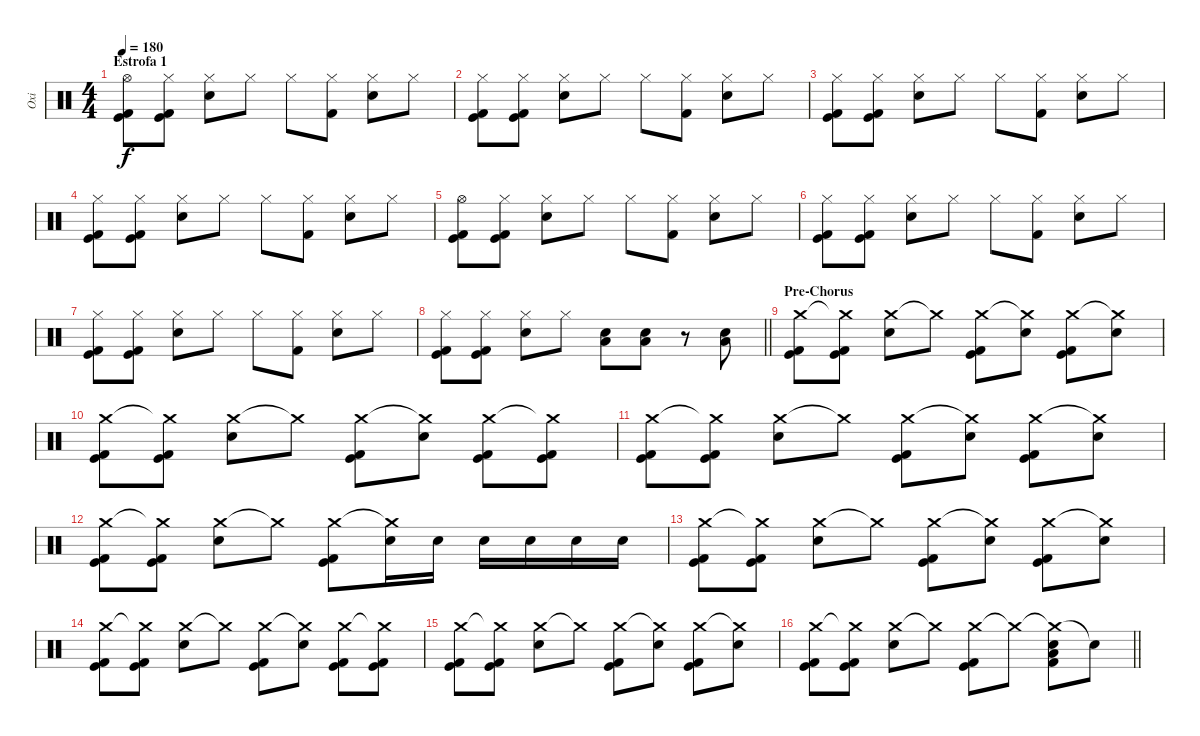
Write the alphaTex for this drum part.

\track ("Oxi" "Oxi") {instrument percussion}
\staff {score}
\articulation defaults
\ts (4 4)
\section ("" "Estrofa 1")
\tempo 180
\clef neutral
\ks c
("Hi-Hat (open)" "Kick (hit) 2" "Kick (hit)").8{dy f} ("Hi-Hat (closed)" "Kick (hit) 2" "Kick (hit)").8 ("Hi-Hat (closed)" "Electric Snare (hit)").8 "Hi-Hat (closed)".8 "Hi-Hat (closed)".8 ("Hi-Hat (closed)" "Kick (hit) 2").8 ("Hi-Hat (closed)" "Electric Snare (hit)").8 "Hi-Hat (closed)".8 |
("Hi-Hat (closed)" "Kick (hit) 2" "Kick (hit)").8 ("Hi-Hat (closed)" "Kick (hit) 2" "Kick (hit)").8 ("Hi-Hat (closed)" "Electric Snare (hit)").8 "Hi-Hat (closed)".8 "Hi-Hat (closed)".8 ("Hi-Hat (closed)" "Kick (hit) 2").8 ("Hi-Hat (closed)" "Electric Snare (hit)").8 "Hi-Hat (closed)".8 |
("Hi-Hat (closed)" "Kick (hit) 2" "Kick (hit)").8 ("Hi-Hat (closed)" "Kick (hit) 2" "Kick (hit)").8 ("Hi-Hat (closed)" "Electric Snare (hit)").8 "Hi-Hat (closed)".8 "Hi-Hat (closed)".8 ("Hi-Hat (closed)" "Kick (hit) 2").8 ("Hi-Hat (closed)" "Electric Snare (hit)").8 "Hi-Hat (closed)".8 |
("Hi-Hat (closed)" "Kick (hit) 2" "Kick (hit)").8 ("Hi-Hat (closed)" "Kick (hit) 2" "Kick (hit)").8 ("Hi-Hat (closed)" "Electric Snare (hit)").8 "Hi-Hat (closed)".8 "Hi-Hat (closed)".8 ("Hi-Hat (closed)" "Kick (hit) 2").8 ("Hi-Hat (closed)" "Electric Snare (hit)").8 "Hi-Hat (closed)".8 |
("Hi-Hat (open)" "Kick (hit) 2" "Kick (hit)").8 ("Hi-Hat (closed)" "Kick (hit) 2" "Kick (hit)").8 ("Hi-Hat (closed)" "Electric Snare (hit)").8 "Hi-Hat (closed)".8 "Hi-Hat (closed)".8 ("Hi-Hat (closed)" "Kick (hit) 2").8 ("Hi-Hat (closed)" "Electric Snare (hit)").8 "Hi-Hat (closed)".8 |
("Hi-Hat (closed)" "Kick (hit) 2" "Kick (hit)").8 ("Hi-Hat (closed)" "Kick (hit) 2" "Kick (hit)").8 ("Hi-Hat (closed)" "Electric Snare (hit)").8 "Hi-Hat (closed)".8 "Hi-Hat (closed)".8 ("Hi-Hat (closed)" "Kick (hit) 2").8 ("Hi-Hat (closed)" "Electric Snare (hit)").8 "Hi-Hat (closed)".8 |
("Hi-Hat (closed)" "Kick (hit) 2" "Kick (hit)").8 ("Hi-Hat (closed)" "Kick (hit) 2" "Kick (hit)").8 ("Hi-Hat (closed)" "Electric Snare (hit)").8 "Hi-Hat (closed)".8 "Hi-Hat (closed)".8 ("Hi-Hat (closed)" "Kick (hit) 2").8 ("Hi-Hat (closed)" "Electric Snare (hit)").8 "Hi-Hat (closed)".8 |
\barLineRight lightlight
("Hi-Hat (closed)" "Kick (hit) 2" "Kick (hit)").8 ("Hi-Hat (closed)" "Kick (hit) 2" "Kick (hit)").8 ("Hi-Hat (closed)" "Electric Snare (hit)").8 "Hi-Hat (closed)".8 ("Electric Snare (hit)" "Low Tom (hit)").8 ("Electric Snare (hit)" "Low Tom (hit)").8 r.8 ("Electric Snare (hit)" "Low Tom (hit)").8 |
\section ("" "Pre-Chorus")
("Crash medium (hit)" "Kick (hit) 2" "Kick (hit)").8 ("Crash medium (hit)"{t} "Kick (hit) 2" "Kick (hit)").8 ("Crash medium (hit)" "Electric Snare (hit)").8 "Crash medium (hit)"{t}.8 ("Crash medium (hit)" "Kick (hit) 2" "Kick (hit)").8 ("Crash medium (hit)"{t} "Electric Snare (hit)").8 ("Crash medium (hit)" "Kick (hit) 2" "Kick (hit)").8 ("Crash medium (hit)"{t} "Electric Snare (hit)").8 |
("Crash medium (hit)" "Kick (hit) 2" "Kick (hit)").8 ("Crash medium (hit)"{t} "Kick (hit) 2" "Kick (hit)").8 ("Crash medium (hit)" "Electric Snare (hit)").8 "Crash medium (hit)"{t}.8 ("Crash medium (hit)" "Kick (hit) 2" "Kick (hit)").8 ("Crash medium (hit)"{t} "Electric Snare (hit)").8 ("Crash medium (hit)" "Kick (hit) 2" "Kick (hit)").8 ("Crash medium (hit)"{t} "Kick (hit) 2" "Kick (hit)").8 |
("Crash medium (hit)" "Kick (hit) 2" "Kick (hit)").8 ("Crash medium (hit)"{t} "Kick (hit) 2" "Kick (hit)").8 ("Crash medium (hit)" "Electric Snare (hit)").8 "Crash medium (hit)"{t}.8 ("Crash medium (hit)" "Kick (hit) 2" "Kick (hit)").8 ("Crash medium (hit)"{t} "Electric Snare (hit)").8 ("Crash medium (hit)" "Kick (hit) 2" "Kick (hit)").8 ("Crash medium (hit)"{t} "Electric Snare (hit)").8 |
("Crash medium (hit)" "Kick (hit) 2" "Kick (hit)").8 ("Crash medium (hit)"{t} "Kick (hit) 2" "Kick (hit)").8 ("Crash medium (hit)" "Electric Snare (hit)").8 "Crash medium (hit)"{t}.8 ("Crash medium (hit)" "Kick (hit) 2" "Kick (hit)").8 ("Crash medium (hit)"{t} "Electric Snare (hit)").16 "Electric Snare (hit)".16 "Electric Snare (hit)".16 "Electric Snare (hit)".16 "Electric Snare (hit)".16 "Electric Snare (hit)".16 |
("Crash medium (hit)" "Kick (hit) 2" "Kick (hit)").8 ("Crash medium (hit)"{t} "Kick (hit) 2" "Kick (hit)").8 ("Crash medium (hit)" "Electric Snare (hit)").8 "Crash medium (hit)"{t}.8 ("Crash medium (hit)" "Kick (hit) 2" "Kick (hit)").8 ("Crash medium (hit)"{t} "Electric Snare (hit)").8 ("Crash medium (hit)" "Kick (hit) 2" "Kick (hit)").8 ("Crash medium (hit)"{t} "Electric Snare (hit)").8 |
("Crash medium (hit)" "Kick (hit) 2" "Kick (hit)").8 ("Crash medium (hit)"{t} "Kick (hit) 2" "Kick (hit)").8 ("Crash medium (hit)" "Electric Snare (hit)").8 "Crash medium (hit)"{t}.8 ("Crash medium (hit)" "Kick (hit) 2" "Kick (hit)").8 ("Crash medium (hit)"{t} "Electric Snare (hit)").8 ("Crash medium (hit)" "Kick (hit) 2" "Kick (hit)").8 ("Crash medium (hit)"{t} "Kick (hit) 2" "Kick (hit)").8 |
("Crash medium (hit)" "Kick (hit) 2" "Kick (hit)").8 ("Crash medium (hit)"{t} "Kick (hit) 2" "Kick (hit)").8 ("Crash medium (hit)" "Electric Snare (hit)").8 "Crash medium (hit)"{t}.8 ("Crash medium (hit)" "Kick (hit) 2" "Kick (hit)").8 ("Crash medium (hit)"{t} "Electric Snare (hit)").8 ("Crash medium (hit)" "Kick (hit) 2" "Kick (hit)").8 ("Crash medium (hit)"{t} "Electric Snare (hit)").8 |
\barLineRight lightlight
("Crash medium (hit)" "Kick (hit) 2" "Kick (hit)").8 ("Crash medium (hit)"{t} "Kick (hit) 2" "Kick (hit)").8 ("Crash medium (hit)" "Electric Snare (hit)").8 "Crash medium (hit)"{t}.8 ("Crash medium (hit)" "Kick (hit) 2" "Kick (hit)").8 "Crash medium (hit)"{t}.8 ("Crash medium (hit)"{t} "Electric Snare (hit)" "Low Tom (hit)" "Kick (hit) 2").8 "Snare (hit)"{t}.8
